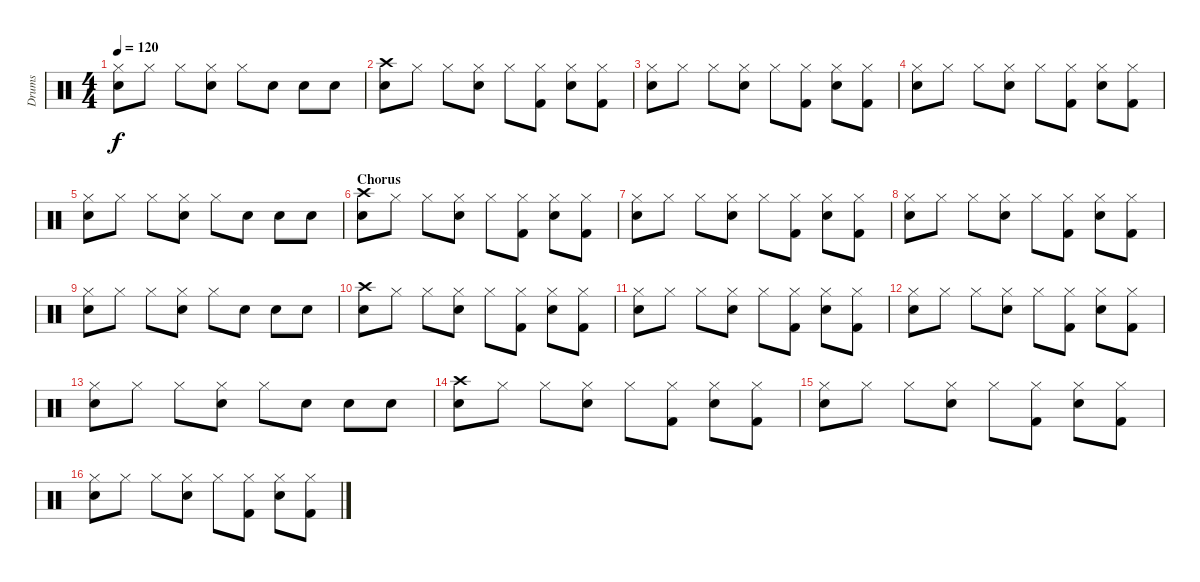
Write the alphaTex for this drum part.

\track ("Drums" "Drums") {instrument percussion}
\staff {score}
\articulation defaults
\ts (4 4)
\tempo 120
\clef neutral
\ks c
("Hi-Hat (closed)" "Snare (hit) 2").8{dy f} "Hi-Hat (closed)".8 "Hi-Hat (closed)".8 ("Hi-Hat (closed)" "Snare (hit) 2").8 "Hi-Hat (closed)".8 "Snare (hit) 2".8 "Snare (hit) 2".8 "Snare (hit) 2".8 |
("Crash high (hit)" "Snare (hit) 2").8 "Hi-Hat (closed)".8 "Hi-Hat (closed)".8 ("Hi-Hat (closed)" "Snare (hit) 2").8 "Hi-Hat (closed)".8 ("Hi-Hat (closed)" "Kick (hit) 2").8 ("Hi-Hat (closed)" "Snare (hit) 2").8 ("Hi-Hat (closed)" "Kick (hit) 2").8 |
("Hi-Hat (closed)" "Snare (hit) 2").8 "Hi-Hat (closed)".8 "Hi-Hat (closed)".8 ("Hi-Hat (closed)" "Snare (hit) 2").8 "Hi-Hat (closed)".8 ("Hi-Hat (closed)" "Kick (hit) 2").8 ("Hi-Hat (closed)" "Snare (hit) 2").8 ("Hi-Hat (closed)" "Kick (hit) 2").8 |
("Hi-Hat (closed)" "Snare (hit) 2").8 "Hi-Hat (closed)".8 "Hi-Hat (closed)".8 ("Hi-Hat (closed)" "Snare (hit) 2").8 "Hi-Hat (closed)".8 ("Hi-Hat (closed)" "Kick (hit) 2").8 ("Hi-Hat (closed)" "Snare (hit) 2").8 ("Hi-Hat (closed)" "Kick (hit) 2").8 |
("Hi-Hat (closed)" "Snare (hit) 2").8 "Hi-Hat (closed)".8 "Hi-Hat (closed)".8 ("Hi-Hat (closed)" "Snare (hit) 2").8 "Hi-Hat (closed)".8 "Snare (hit) 2".8 "Snare (hit) 2".8 "Snare (hit) 2".8 |
\section ("" "Chorus")
("Crash high (hit)" "Snare (hit) 2").8 "Hi-Hat (closed)".8 "Hi-Hat (closed)".8 ("Hi-Hat (closed)" "Snare (hit) 2").8 "Hi-Hat (closed)".8 ("Hi-Hat (closed)" "Kick (hit) 2").8 ("Hi-Hat (closed)" "Snare (hit) 2").8 ("Hi-Hat (closed)" "Kick (hit) 2").8 |
("Hi-Hat (closed)" "Snare (hit) 2").8 "Hi-Hat (closed)".8 "Hi-Hat (closed)".8 ("Hi-Hat (closed)" "Snare (hit) 2").8 "Hi-Hat (closed)".8 ("Hi-Hat (closed)" "Kick (hit) 2").8 ("Hi-Hat (closed)" "Snare (hit) 2").8 ("Hi-Hat (closed)" "Kick (hit) 2").8 |
("Hi-Hat (closed)" "Snare (hit) 2").8 "Hi-Hat (closed)".8 "Hi-Hat (closed)".8 ("Hi-Hat (closed)" "Snare (hit) 2").8 "Hi-Hat (closed)".8 ("Hi-Hat (closed)" "Kick (hit) 2").8 ("Hi-Hat (closed)" "Snare (hit) 2").8 ("Hi-Hat (closed)" "Kick (hit) 2").8 |
("Hi-Hat (closed)" "Snare (hit) 2").8 "Hi-Hat (closed)".8 "Hi-Hat (closed)".8 ("Hi-Hat (closed)" "Snare (hit) 2").8 "Hi-Hat (closed)".8 "Snare (hit) 2".8 "Snare (hit) 2".8 "Snare (hit) 2".8 |
("Crash high (hit)" "Snare (hit) 2").8 "Hi-Hat (closed)".8 "Hi-Hat (closed)".8 ("Hi-Hat (closed)" "Snare (hit) 2").8 "Hi-Hat (closed)".8 ("Hi-Hat (closed)" "Kick (hit) 2").8 ("Hi-Hat (closed)" "Snare (hit) 2").8 ("Hi-Hat (closed)" "Kick (hit) 2").8 |
("Hi-Hat (closed)" "Snare (hit) 2").8 "Hi-Hat (closed)".8 "Hi-Hat (closed)".8 ("Hi-Hat (closed)" "Snare (hit) 2").8 "Hi-Hat (closed)".8 ("Hi-Hat (closed)" "Kick (hit) 2").8 ("Hi-Hat (closed)" "Snare (hit) 2").8 ("Hi-Hat (closed)" "Kick (hit) 2").8 |
("Hi-Hat (closed)" "Snare (hit) 2").8 "Hi-Hat (closed)".8 "Hi-Hat (closed)".8 ("Hi-Hat (closed)" "Snare (hit) 2").8 "Hi-Hat (closed)".8 ("Hi-Hat (closed)" "Kick (hit) 2").8 ("Hi-Hat (closed)" "Snare (hit) 2").8 ("Hi-Hat (closed)" "Kick (hit) 2").8 |
("Hi-Hat (closed)" "Snare (hit) 2").8 "Hi-Hat (closed)".8 "Hi-Hat (closed)".8 ("Hi-Hat (closed)" "Snare (hit) 2").8 "Hi-Hat (closed)".8 "Snare (hit) 2".8 "Snare (hit) 2".8 "Snare (hit) 2".8 |
("Crash high (hit)" "Snare (hit) 2").8 "Hi-Hat (closed)".8 "Hi-Hat (closed)".8 ("Hi-Hat (closed)" "Snare (hit) 2").8 "Hi-Hat (closed)".8 ("Hi-Hat (closed)" "Kick (hit) 2").8 ("Hi-Hat (closed)" "Snare (hit) 2").8 ("Hi-Hat (closed)" "Kick (hit) 2").8 |
("Hi-Hat (closed)" "Snare (hit) 2").8 "Hi-Hat (closed)".8 "Hi-Hat (closed)".8 ("Hi-Hat (closed)" "Snare (hit) 2").8 "Hi-Hat (closed)".8 ("Hi-Hat (closed)" "Kick (hit) 2").8 ("Hi-Hat (closed)" "Snare (hit) 2").8 ("Hi-Hat (closed)" "Kick (hit) 2").8 |
("Hi-Hat (closed)" "Snare (hit) 2").8 "Hi-Hat (closed)".8 "Hi-Hat (closed)".8 ("Hi-Hat (closed)" "Snare (hit) 2").8 "Hi-Hat (closed)".8 ("Hi-Hat (closed)" "Kick (hit) 2").8 ("Hi-Hat (closed)" "Snare (hit) 2").8 ("Hi-Hat (closed)" "Kick (hit) 2").8
